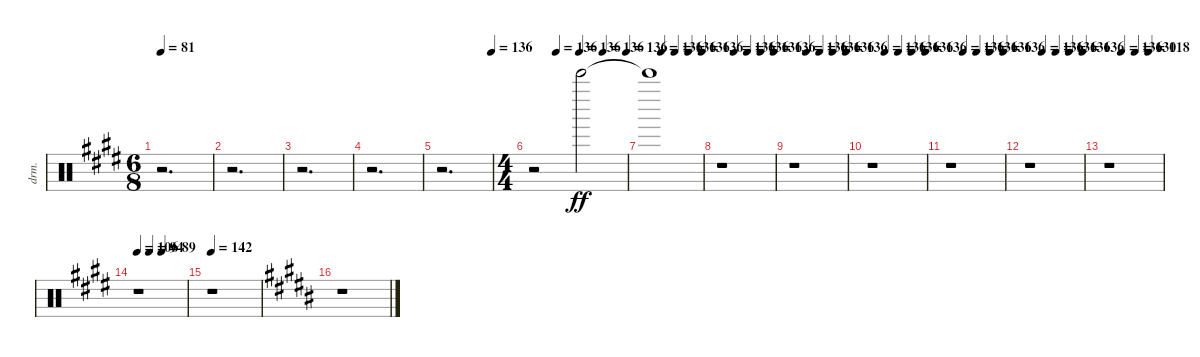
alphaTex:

\bracketExtendMode nobrackets
\track ("Wind Chimes" "drm.") {instrument percussion}
\staff {score}
\articulation defaults
\ts (6 8)
\tempo 81
\clef neutral
\ks c#minor
r.2{d dy ff beam Down} |
r.2{d beam Down} |
r.2{d beam Down} |
r.2{d beam Down} |
\tempo (136 0.999306)
r.2{d beam Down} |
\ts (4 4)
\tempo (136 0.249479)
\tempo (136 0.499479)
\tempo (136 0.749479)
\tempo (136 0.999479)
r.2{beam Down} "Bell Tree (hit)"{acc forcenatural}.2{beam Down} |
\tempo (136 0.249479)
\tempo (136 0.499479)
\tempo (136 0.749479)
\tempo (136 0.999479)
"Bell Tree (hit)"{t acc forcenatural}.1{beam Down} |
\tempo (136 0.249479)
\tempo (136 0.499479)
\tempo (136 0.749479)
\tempo (136 0.999479)
r.1{beam Down} |
\tempo (136 0.249479)
\tempo (136 0.499479)
\tempo (136 0.749479)
\tempo (136 0.999479)
r.1{beam Down} |
\tempo (136 0.249479)
\tempo (136 0.499479)
\tempo (136 0.749479)
\tempo (136 0.999479)
r.1{beam Down} |
\tempo (136 0.249479)
\tempo (136 0.499479)
\tempo (136 0.749479)
\tempo (136 0.999479)
r.1{beam Down} |
\tempo (136 0.249479)
\tempo (136 0.499479)
\tempo (136 0.749479)
\tempo (136 0.999479)
r.1{beam Down} |
\tempo (136 0.249479)
\tempo (130 0.5)
\tempo (118 0.75)
r.1{beam Down} |
\tempo 106
\tempo (94 0.25)
\tempo (89 0.5)
r.1{beam Down} |
\tempo 142
r.1{beam Down} |
\ks g#minor
r.1{beam Down}
